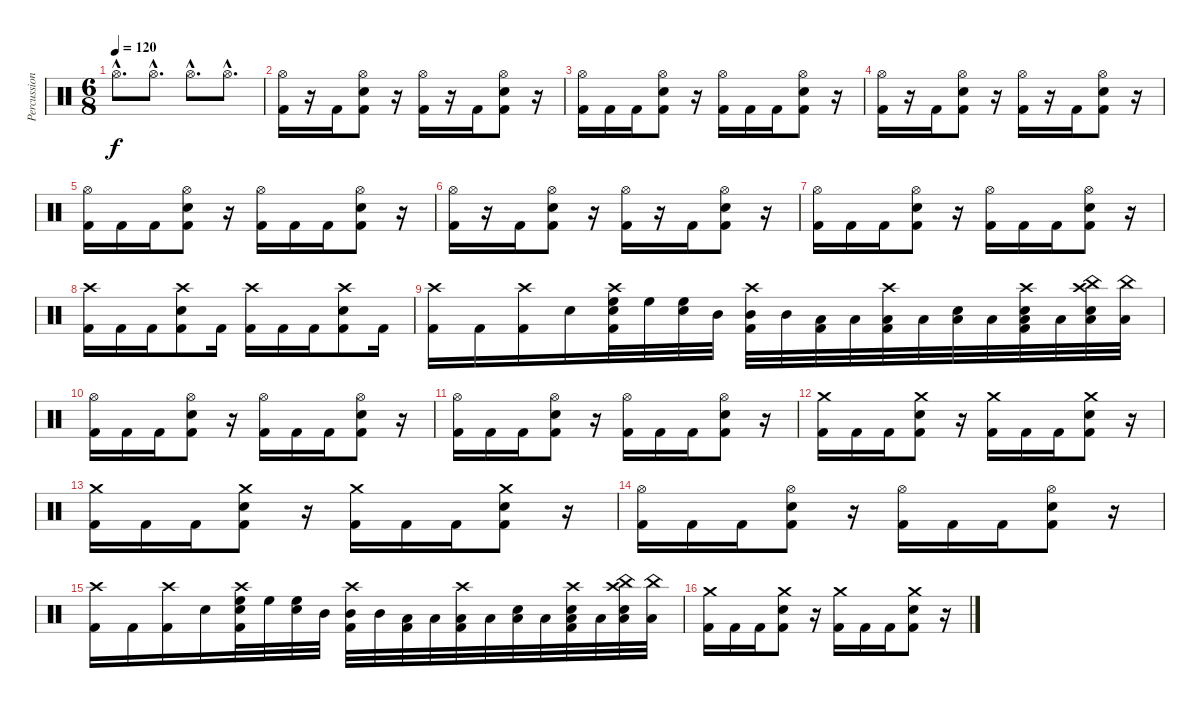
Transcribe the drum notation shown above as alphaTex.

\track ("Percussion" "Percussion") {instrument percussion}
\staff {score}
\articulation defaults
\ts (6 8)
\tempo 120
\clef neutral
\ks c "Hi-Hat (open)"{hac}.8{d dy f} "Hi-Hat (open)"{hac}.8{d} "Hi-Hat (open)"{hac}.8{d} "Hi-Hat (open)"{hac}.8{d}
|
("Hi-Hat (open)" "Kick (hit) 2").16 r.16 "Kick (hit) 2".16 ("Hi-Hat (open)" "Snare (hit) 2" "Kick (hit) 2").8 r.16 ("Hi-Hat (open)" "Kick (hit) 2").16 r.16 "Kick (hit) 2".16 ("Hi-Hat (open)" "Snare (hit) 2" "Kick (hit) 2").8 r.16 |
("Hi-Hat (open)" "Kick (hit) 2").16 "Kick (hit) 2".16 "Kick (hit) 2".16 ("Hi-Hat (open)" "Snare (hit) 2" "Kick (hit) 2").8 r.16 ("Hi-Hat (open)" "Kick (hit) 2").16 "Kick (hit) 2".16 "Kick (hit) 2".16 ("Hi-Hat (open)" "Snare (hit) 2" "Kick (hit) 2").8 r.16 |
("Hi-Hat (open)" "Kick (hit) 2").16 r.16 "Kick (hit) 2".16 ("Hi-Hat (open)" "Snare (hit) 2" "Kick (hit) 2").8 r.16 ("Hi-Hat (open)" "Kick (hit) 2").16 r.16 "Kick (hit) 2".16 ("Hi-Hat (open)" "Snare (hit) 2" "Kick (hit) 2").8 r.16 |
("Hi-Hat (open)" "Kick (hit) 2").16 "Kick (hit) 2".16 "Kick (hit) 2".16 ("Hi-Hat (open)" "Snare (hit) 2" "Kick (hit) 2").8 r.16 ("Hi-Hat (open)" "Kick (hit) 2").16 "Kick (hit) 2".16 "Kick (hit) 2".16 ("Hi-Hat (open)" "Snare (hit) 2" "Kick (hit) 2").8 r.16 |
("Hi-Hat (open)" "Kick (hit) 2").16 r.16 "Kick (hit) 2".16 ("Hi-Hat (open)" "Snare (hit) 2" "Kick (hit) 2").8 r.16 ("Hi-Hat (open)" "Kick (hit) 2").16 r.16 "Kick (hit) 2".16 ("Hi-Hat (open)" "Snare (hit) 2" "Kick (hit) 2").8 r.16 |
("Hi-Hat (open)" "Kick (hit) 2").16 "Kick (hit) 2".16 "Kick (hit) 2".16 ("Hi-Hat (open)" "Snare (hit) 2" "Kick (hit) 2").8 r.16 ("Hi-Hat (open)" "Kick (hit) 2").16 "Kick (hit) 2".16 "Kick (hit) 2".16 ("Hi-Hat (open)" "Snare (hit) 2" "Kick (hit) 2").8 r.16 |
("Crash high (hit)" "Kick (hit) 2").16 "Kick (hit) 2".16 "Kick (hit) 2".16 ("Crash high (hit)" "Snare (hit) 2" "Kick (hit) 2").8 "Kick (hit) 2".16 ("Crash high (hit)" "Kick (hit) 2").16 "Kick (hit) 2".16 "Kick (hit) 2".16 ("Crash high (hit)" "Snare (hit) 2" "Kick (hit) 2").8 "Kick (hit) 2".16 |
("Crash high (hit)" "Kick (hit) 2").16 "Kick (hit) 2".16 ("Crash high (hit)" "Kick (hit) 2").16 "Snare (hit) 2".16 ("Crash high (hit)" "High Floor Tom (hit)" "Snare (hit) 2" "Kick (hit) 2").32 "High Floor Tom (hit)".32 ("High Floor Tom (hit)" "Snare (hit) 2").32 "Mid Tom (hit)".32 ("Crash high (hit)" "Mid Tom (hit)" "Kick (hit) 2").32 "Mid Tom (hit)".32 ("Low Tom (hit)" "Kick (hit) 2").32 "Low Tom (hit)".32 ("Crash high (hit)" "Low Tom (hit)" "Kick (hit) 2").32 "Low Floor Tom (hit)".32 ("Low Floor Tom (hit)" "Snare (hit) 2").32 "Low Floor Tom (hit)".32 ("Crash high (hit)" "Low Floor Tom (hit)" "Snare (hit) 2" "Kick (hit) 2").32 "Low Floor Tom (hit)".32 ("China (hit)" "Low Floor Tom (hit)" "Crash high (hit)" "Snare (hit) 2").32 ("Low Floor Tom (hit)" "China (hit)").32 |
("Hi-Hat (open)" "Kick (hit) 2").16 "Kick (hit) 2".16 "Kick (hit) 2".16 ("Hi-Hat (open)" "Snare (hit) 2" "Kick (hit) 2").8 r.16 ("Hi-Hat (open)" "Kick (hit) 2").16 "Kick (hit) 2".16 "Kick (hit) 2".16 ("Hi-Hat (open)" "Snare (hit) 2" "Kick (hit) 2").8 r.16 |
("Hi-Hat (open)" "Kick (hit) 2").16 "Kick (hit) 2".16 "Kick (hit) 2".16 ("Hi-Hat (open)" "Snare (hit) 2" "Kick (hit) 2").8 r.16 ("Hi-Hat (open)" "Kick (hit) 2").16 "Kick (hit) 2".16 "Kick (hit) 2".16 ("Hi-Hat (open)" "Snare (hit) 2" "Kick (hit) 2").8 r.16 |
("Crash medium (hit)" "Kick (hit) 2").16 "Kick (hit) 2".16 "Kick (hit) 2".16 ("Crash medium (hit)" "Snare (hit) 2" "Kick (hit) 2").8 r.16 ("Crash medium (hit)" "Kick (hit) 2").16 "Kick (hit) 2".16 "Kick (hit) 2".16 ("Crash medium (hit)" "Snare (hit) 2" "Kick (hit) 2").8 r.16 |
("Crash medium (hit)" "Kick (hit) 2").16 "Kick (hit) 2".16 "Kick (hit) 2".16 ("Crash medium (hit)" "Snare (hit) 2" "Kick (hit) 2").8 r.16 ("Crash medium (hit)" "Kick (hit) 2").16 "Kick (hit) 2".16 "Kick (hit) 2".16 ("Crash medium (hit)" "Snare (hit) 2" "Kick (hit) 2").8 r.16 |
("Hi-Hat (open)" "Kick (hit) 2").16 "Kick (hit) 2".16 "Kick (hit) 2".16 ("Hi-Hat (open)" "Snare (hit) 2" "Kick (hit) 2").8 r.16 ("Hi-Hat (open)" "Kick (hit) 2").16 "Kick (hit) 2".16 "Kick (hit) 2".16 ("Hi-Hat (open)" "Snare (hit) 2" "Kick (hit) 2").8 r.16 |
("Crash high (hit)" "Kick (hit) 2").16 "Kick (hit) 2".16 ("Crash high (hit)" "Kick (hit) 2").16 "Snare (hit) 2".16 ("Crash high (hit)" "High Floor Tom (hit)" "Snare (hit) 2" "Kick (hit) 2").32 "High Floor Tom (hit)".32 ("High Floor Tom (hit)" "Snare (hit) 2").32 "Mid Tom (hit)".32 ("Crash high (hit)" "Mid Tom (hit)" "Kick (hit) 2").32 "Mid Tom (hit)".32 ("Low Tom (hit)" "Kick (hit) 2").32 "Low Tom (hit)".32 ("Crash high (hit)" "Low Tom (hit)" "Kick (hit) 2").32 "Low Floor Tom (hit)".32 ("Low Floor Tom (hit)" "Snare (hit) 2").32 "Low Floor Tom (hit)".32 ("Crash high (hit)" "Low Floor Tom (hit)" "Snare (hit) 2" "Kick (hit) 2").32 "Low Floor Tom (hit)".32 ("China (hit)" "Low Floor Tom (hit)" "Crash high (hit)" "Snare (hit) 2").32 ("Low Floor Tom (hit)" "China (hit)").32 |
("Crash medium (hit)" "Kick (hit) 2").16 "Kick (hit) 2".16 "Kick (hit) 2".16 ("Crash medium (hit)" "Snare (hit) 2" "Kick (hit) 2").8 r.16 ("Crash medium (hit)" "Kick (hit) 2").16 "Kick (hit) 2".16 "Kick (hit) 2".16 ("Crash medium (hit)" "Snare (hit) 2" "Kick (hit) 2").8 r.16
